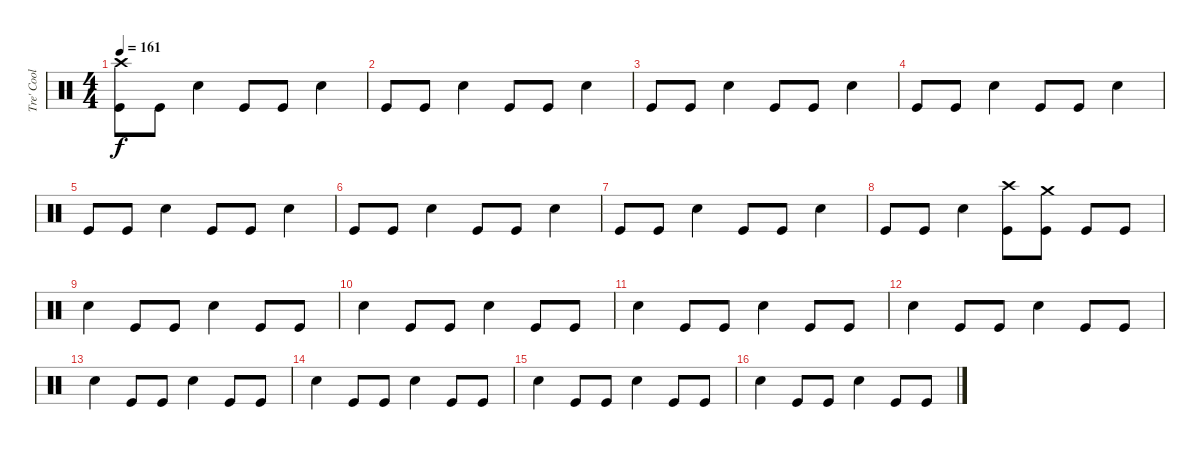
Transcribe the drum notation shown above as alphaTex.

\track ("Tre' Cool" "Tre' Cool") {instrument percussion}
\staff {score}
\articulation defaults
\ts (4 4)
\tempo 161
\clef neutral
\ks c
("Crash high (hit)" "Kick (hit)").8{dy f} "Kick (hit)".8 "Snare (hit) 2".4 "Kick (hit)".8 "Kick (hit)".8 "Snare (hit) 2".4 |
"Kick (hit)".8 "Kick (hit)".8 "Snare (hit) 2".4 "Kick (hit)".8 "Kick (hit)".8 "Snare (hit) 2".4 |
"Kick (hit)".8 "Kick (hit)".8 "Snare (hit) 2".4 "Kick (hit)".8 "Kick (hit)".8 "Snare (hit) 2".4 |
"Kick (hit)".8 "Kick (hit)".8 "Snare (hit) 2".4 "Kick (hit)".8 "Kick (hit)".8 "Snare (hit) 2".4 |
"Kick (hit)".8 "Kick (hit)".8 "Snare (hit) 2".4 "Kick (hit)".8 "Kick (hit)".8 "Snare (hit) 2".4 |
"Kick (hit)".8 "Kick (hit)".8 "Snare (hit) 2".4 "Kick (hit)".8 "Kick (hit)".8 "Snare (hit) 2".4 |
"Kick (hit)".8 "Kick (hit)".8 "Snare (hit) 2".4 "Kick (hit)".8 "Kick (hit)".8 "Snare (hit) 2".4 |
"Kick (hit)".8 "Kick (hit)".8 "Snare (hit) 2".4 ("Kick (hit)" "Crash high (hit)").8 ("Kick (hit)" "Crash medium (hit)").8 "Kick (hit)".8 "Kick (hit)".8 |
"Snare (hit) 2".4 "Kick (hit)".8 "Kick (hit)".8 "Snare (hit) 2".4 "Kick (hit)".8 "Kick (hit)".8 |
"Snare (hit) 2".4 "Kick (hit)".8 "Kick (hit)".8 "Snare (hit) 2".4 "Kick (hit)".8 "Kick (hit)".8 |
"Snare (hit) 2".4 "Kick (hit)".8 "Kick (hit)".8 "Snare (hit) 2".4 "Kick (hit)".8 "Kick (hit)".8 |
"Snare (hit) 2".4 "Kick (hit)".8 "Kick (hit)".8 "Snare (hit) 2".4 "Kick (hit)".8 "Kick (hit)".8 |
"Snare (hit) 2".4 "Kick (hit)".8 "Kick (hit)".8 "Snare (hit) 2".4 "Kick (hit)".8 "Kick (hit)".8 |
"Snare (hit) 2".4 "Kick (hit)".8 "Kick (hit)".8 "Snare (hit) 2".4 "Kick (hit)".8 "Kick (hit)".8 |
"Snare (hit) 2".4 "Kick (hit)".8 "Kick (hit)".8 "Snare (hit) 2".4 "Kick (hit)".8 "Kick (hit)".8 |
"Snare (hit) 2".4 "Kick (hit)".8 "Kick (hit)".8 "Snare (hit) 2".4 "Kick (hit)".8 "Kick (hit)".8
